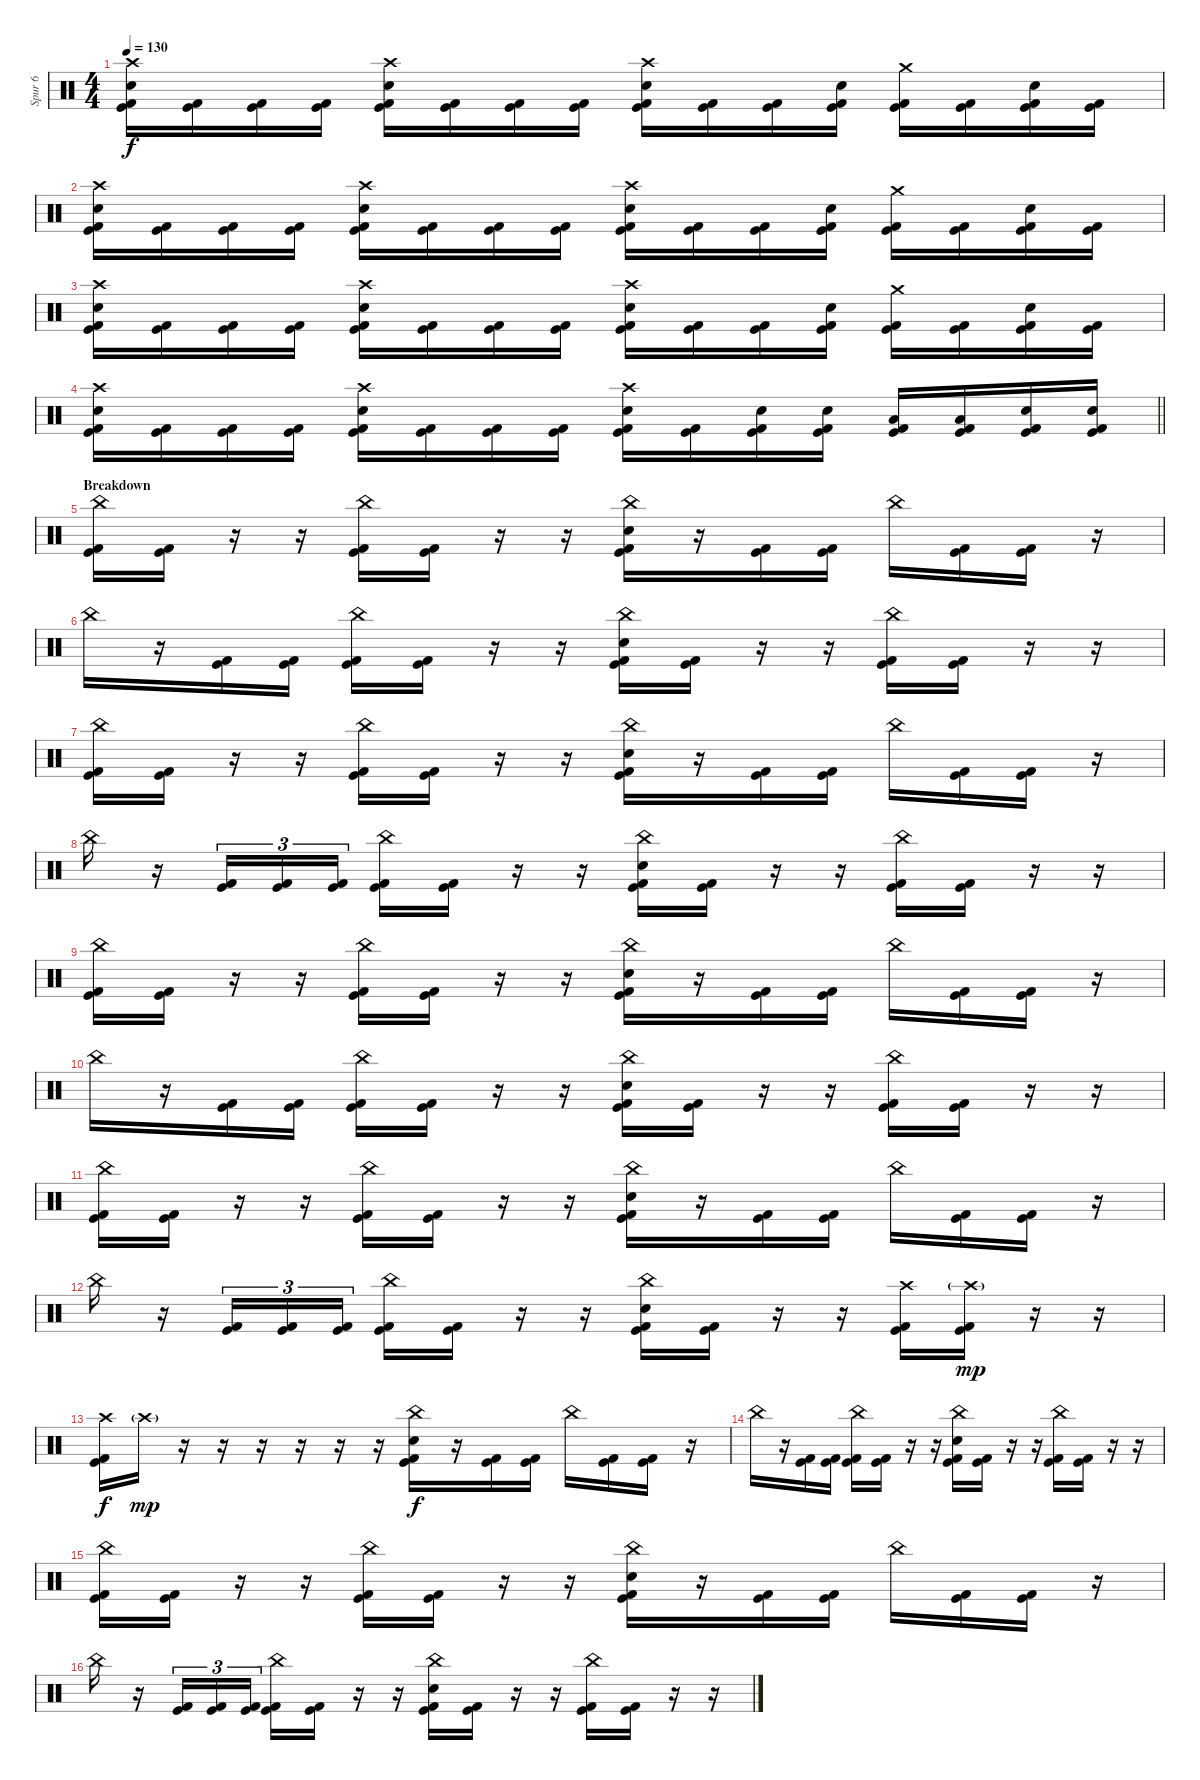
\track ("Spur 6" "Spur 6") {instrument percussion}
\staff {score}
\articulation defaults
\ts (4 4)
\tempo 130
\clef neutral
\ks c
("Crash high (hit)" "Electric Snare (hit)" "Kick (hit)" "Kick (hit) 2").16{dy f} ("Kick (hit)" "Kick (hit) 2").16 ("Kick (hit)" "Kick (hit) 2").16 ("Kick (hit)" "Kick (hit) 2").16 ("Crash high (hit)" "Electric Snare (hit)" "Kick (hit)" "Kick (hit) 2").16 ("Kick (hit)" "Kick (hit) 2").16 ("Kick (hit)" "Kick (hit) 2").16 ("Kick (hit)" "Kick (hit) 2").16 ("Crash high (hit)" "Electric Snare (hit)" "Kick (hit)" "Kick (hit) 2").16 ("Kick (hit)" "Kick (hit) 2").16 ("Kick (hit)" "Kick (hit) 2").16 ("Electric Snare (hit)" "Kick (hit)" "Kick (hit) 2").16 ("Crash medium (hit)" "Kick (hit)" "Kick (hit) 2").16 ("Kick (hit)" "Kick (hit) 2").16 ("Electric Snare (hit)" "Kick (hit)" "Kick (hit) 2").16 ("Kick (hit)" "Kick (hit) 2").16 |
("Crash high (hit)" "Electric Snare (hit)" "Kick (hit)" "Kick (hit) 2").16 ("Kick (hit)" "Kick (hit) 2").16 ("Kick (hit)" "Kick (hit) 2").16 ("Kick (hit)" "Kick (hit) 2").16 ("Crash high (hit)" "Electric Snare (hit)" "Kick (hit)" "Kick (hit) 2").16 ("Kick (hit)" "Kick (hit) 2").16 ("Kick (hit)" "Kick (hit) 2").16 ("Kick (hit)" "Kick (hit) 2").16 ("Crash high (hit)" "Electric Snare (hit)" "Kick (hit)" "Kick (hit) 2").16 ("Kick (hit)" "Kick (hit) 2").16 ("Kick (hit)" "Kick (hit) 2").16 ("Electric Snare (hit)" "Kick (hit)" "Kick (hit) 2").16 ("Crash medium (hit)" "Kick (hit)" "Kick (hit) 2").16 ("Kick (hit)" "Kick (hit) 2").16 ("Electric Snare (hit)" "Kick (hit)" "Kick (hit) 2").16 ("Kick (hit)" "Kick (hit) 2").16 |
("Crash high (hit)" "Electric Snare (hit)" "Kick (hit)" "Kick (hit) 2").16 ("Kick (hit)" "Kick (hit) 2").16 ("Kick (hit)" "Kick (hit) 2").16 ("Kick (hit)" "Kick (hit) 2").16 ("Crash high (hit)" "Electric Snare (hit)" "Kick (hit)" "Kick (hit) 2").16 ("Kick (hit)" "Kick (hit) 2").16 ("Kick (hit)" "Kick (hit) 2").16 ("Kick (hit)" "Kick (hit) 2").16 ("Crash high (hit)" "Electric Snare (hit)" "Kick (hit)" "Kick (hit) 2").16 ("Kick (hit)" "Kick (hit) 2").16 ("Kick (hit)" "Kick (hit) 2").16 ("Electric Snare (hit)" "Kick (hit)" "Kick (hit) 2").16 ("Crash medium (hit)" "Kick (hit)" "Kick (hit) 2").16 ("Kick (hit)" "Kick (hit) 2").16 ("Electric Snare (hit)" "Kick (hit)" "Kick (hit) 2").16 ("Kick (hit)" "Kick (hit) 2").16 |
\barLineRight lightlight
("Crash high (hit)" "Electric Snare (hit)" "Kick (hit)" "Kick (hit) 2").16 ("Kick (hit)" "Kick (hit) 2").16 ("Kick (hit)" "Kick (hit) 2").16 ("Kick (hit)" "Kick (hit) 2").16 ("Crash high (hit)" "Electric Snare (hit)" "Kick (hit)" "Kick (hit) 2").16 ("Kick (hit)" "Kick (hit) 2").16 ("Kick (hit)" "Kick (hit) 2").16 ("Kick (hit)" "Kick (hit) 2").16 ("Crash high (hit)" "Electric Snare (hit)" "Kick (hit)" "Kick (hit) 2").16 ("Kick (hit)" "Kick (hit) 2").16 ("Electric Snare (hit)" "Kick (hit)" "Kick (hit) 2").16 ("Electric Snare (hit)" "Kick (hit)" "Kick (hit) 2").16 ("Low Tom (hit)" "Kick (hit)" "Kick (hit) 2").16 ("Low Tom (hit)" "Kick (hit)" "Kick (hit) 2").16 ("Electric Snare (hit)" "Kick (hit)" "Kick (hit) 2").16 ("Electric Snare (hit)" "Kick (hit)" "Kick (hit) 2").16 |
\section ("" "Breakdown")
("China (hit)" "Kick (hit)" "Kick (hit) 2").16 ("Kick (hit)" "Kick (hit) 2").16 r.16 r.16 ("China (hit)" "Kick (hit)" "Kick (hit) 2").16 ("Kick (hit)" "Kick (hit) 2").16 r.16 r.16 ("China (hit)" "Electric Snare (hit)" "Kick (hit)" "Kick (hit) 2").16 r.16 ("Kick (hit)" "Kick (hit) 2").16 ("Kick (hit)" "Kick (hit) 2").16 "China (hit)".16 ("Kick (hit)" "Kick (hit) 2").16 ("Kick (hit)" "Kick (hit) 2").16 r.16 |
"China (hit)".16 r.16 ("Kick (hit)" "Kick (hit) 2").16 ("Kick (hit)" "Kick (hit) 2").16 ("China (hit)" "Kick (hit)" "Kick (hit) 2").16 ("Kick (hit)" "Kick (hit) 2").16 r.16 r.16 ("China (hit)" "Electric Snare (hit)" "Kick (hit)" "Kick (hit) 2").16 ("Kick (hit)" "Kick (hit) 2").16 r.16 r.16 ("China (hit)" "Kick (hit)" "Kick (hit) 2").16 ("Kick (hit)" "Kick (hit) 2").16 r.16 r.16 |
("China (hit)" "Kick (hit)" "Kick (hit) 2").16 ("Kick (hit)" "Kick (hit) 2").16 r.16 r.16 ("China (hit)" "Kick (hit)" "Kick (hit) 2").16 ("Kick (hit)" "Kick (hit) 2").16 r.16 r.16 ("China (hit)" "Electric Snare (hit)" "Kick (hit)" "Kick (hit) 2").16 r.16 ("Kick (hit)" "Kick (hit) 2").16 ("Kick (hit)" "Kick (hit) 2").16 "China (hit)".16 ("Kick (hit)" "Kick (hit) 2").16 ("Kick (hit)" "Kick (hit) 2").16 r.16 |
"China (hit)".16 r.16 ("Kick (hit)" "Kick (hit) 2").16{tu (3 2)} ("Kick (hit)" "Kick (hit) 2").16{tu (3 2)} ("Kick (hit)" "Kick (hit) 2").16{tu (3 2)} ("China (hit)" "Kick (hit)" "Kick (hit) 2").16 ("Kick (hit)" "Kick (hit) 2").16 r.16 r.16 ("China (hit)" "Electric Snare (hit)" "Kick (hit)" "Kick (hit) 2").16 ("Kick (hit)" "Kick (hit) 2").16 r.16 r.16 ("China (hit)" "Kick (hit)" "Kick (hit) 2").16 ("Kick (hit)" "Kick (hit) 2").16 r.16 r.16 |
("China (hit)" "Kick (hit)" "Kick (hit) 2").16 ("Kick (hit)" "Kick (hit) 2").16 r.16 r.16 ("China (hit)" "Kick (hit)" "Kick (hit) 2").16 ("Kick (hit)" "Kick (hit) 2").16 r.16 r.16 ("China (hit)" "Electric Snare (hit)" "Kick (hit)" "Kick (hit) 2").16 r.16 ("Kick (hit)" "Kick (hit) 2").16 ("Kick (hit)" "Kick (hit) 2").16 "China (hit)".16 ("Kick (hit)" "Kick (hit) 2").16 ("Kick (hit)" "Kick (hit) 2").16 r.16 |
"China (hit)".16 r.16 ("Kick (hit)" "Kick (hit) 2").16 ("Kick (hit)" "Kick (hit) 2").16 ("China (hit)" "Kick (hit)" "Kick (hit) 2").16 ("Kick (hit)" "Kick (hit) 2").16 r.16 r.16 ("China (hit)" "Electric Snare (hit)" "Kick (hit)" "Kick (hit) 2").16 ("Kick (hit)" "Kick (hit) 2").16 r.16 r.16 ("China (hit)" "Kick (hit)" "Kick (hit) 2").16 ("Kick (hit)" "Kick (hit) 2").16 r.16 r.16 |
("China (hit)" "Kick (hit)" "Kick (hit) 2").16 ("Kick (hit)" "Kick (hit) 2").16 r.16 r.16 ("China (hit)" "Kick (hit)" "Kick (hit) 2").16 ("Kick (hit)" "Kick (hit) 2").16 r.16 r.16 ("China (hit)" "Electric Snare (hit)" "Kick (hit)" "Kick (hit) 2").16 r.16 ("Kick (hit)" "Kick (hit) 2").16 ("Kick (hit)" "Kick (hit) 2").16 "China (hit)".16 ("Kick (hit)" "Kick (hit) 2").16 ("Kick (hit)" "Kick (hit) 2").16 r.16 |
"China (hit)".16 r.16 ("Kick (hit)" "Kick (hit) 2").16{tu (3 2)} ("Kick (hit)" "Kick (hit) 2").16{tu (3 2)} ("Kick (hit)" "Kick (hit) 2").16{tu (3 2)} ("China (hit)" "Kick (hit)" "Kick (hit) 2").16 ("Kick (hit)" "Kick (hit) 2").16 r.16 r.16 ("China (hit)" "Electric Snare (hit)" "Kick (hit)" "Kick (hit) 2").16 ("Kick (hit)" "Kick (hit) 2").16 r.16 r.16 ("Crash high (hit)" "Kick (hit)" "Kick (hit) 2").16 ("Crash high (hit)"{g} "Kick (hit)" "Kick (hit) 2").16{dy mp} r.16 r.16 |
("Crash high (hit)" "Kick (hit)" "Kick (hit) 2").16{dy f} "Crash high (hit)"{g}.16{dy mp} r.16 r.16 r.16 r.16 r.16 r.16 ("China (hit)" "Electric Snare (hit)" "Kick (hit)" "Kick (hit) 2").16{dy f} r.16 ("Kick (hit)" "Kick (hit) 2").16 ("Kick (hit)" "Kick (hit) 2").16 "China (hit)".16 ("Kick (hit)" "Kick (hit) 2").16 ("Kick (hit)" "Kick (hit) 2").16 r.16 |
"China (hit)".16 r.16 ("Kick (hit)" "Kick (hit) 2").16 ("Kick (hit)" "Kick (hit) 2").16 ("China (hit)" "Kick (hit)" "Kick (hit) 2").16 ("Kick (hit)" "Kick (hit) 2").16 r.16 r.16 ("China (hit)" "Electric Snare (hit)" "Kick (hit)" "Kick (hit) 2").16 ("Kick (hit)" "Kick (hit) 2").16 r.16 r.16 ("China (hit)" "Kick (hit)" "Kick (hit) 2").16 ("Kick (hit)" "Kick (hit) 2").16 r.16 r.16 |
("China (hit)" "Kick (hit)" "Kick (hit) 2").16 ("Kick (hit)" "Kick (hit) 2").16 r.16 r.16 ("China (hit)" "Kick (hit)" "Kick (hit) 2").16 ("Kick (hit)" "Kick (hit) 2").16 r.16 r.16 ("China (hit)" "Electric Snare (hit)" "Kick (hit)" "Kick (hit) 2").16 r.16 ("Kick (hit)" "Kick (hit) 2").16 ("Kick (hit)" "Kick (hit) 2").16 "China (hit)".16 ("Kick (hit)" "Kick (hit) 2").16 ("Kick (hit)" "Kick (hit) 2").16 r.16 |
"China (hit)".16 r.16 ("Kick (hit)" "Kick (hit) 2").16{tu (3 2)} ("Kick (hit)" "Kick (hit) 2").16{tu (3 2)} ("Kick (hit)" "Kick (hit) 2").16{tu (3 2)} ("China (hit)" "Kick (hit)" "Kick (hit) 2").16 ("Kick (hit)" "Kick (hit) 2").16 r.16 r.16 ("China (hit)" "Electric Snare (hit)" "Kick (hit)" "Kick (hit) 2").16 ("Kick (hit)" "Kick (hit) 2").16 r.16 r.16 ("China (hit)" "Kick (hit)" "Kick (hit) 2").16 ("Kick (hit)" "Kick (hit) 2").16 r.16 r.16
